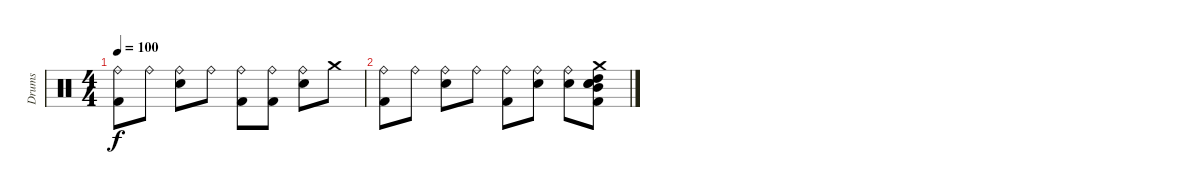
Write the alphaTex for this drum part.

\track ("Drums" "Drums") {instrument percussion}
\staff {score}
\articulation defaults
\ts (4 4)
\tempo 100
\clef neutral
\ks c
("Ride (bell)" "Kick (hit) 2").8{dy f} "Ride (bell)".8 ("Ride (bell)" "Electric Snare (hit)").8 "Ride (bell)".8 ("Ride (bell)" "Kick (hit) 2").8 ("Ride (bell)" "Kick (hit) 2").8 ("Ride (bell)" "Electric Snare (hit)").8 "Crash medium (hit)".8 |
("Ride (bell)" "Kick (hit) 2").8 "Ride (bell)".8 ("Ride (bell)" "Electric Snare (hit)").8 "Ride (bell)".8 ("Ride (bell)" "Kick (hit) 2").8 ("Ride (bell)" "Electric Snare (hit)").8 ("Ride (bell)" "Electric Snare (hit)").8 ("Crash medium (hit)" "Electric Snare (hit)" "Mid Tom (hit)" "High Tom (hit)" "Snare (hit) 2" "Kick (hit) 2").8
